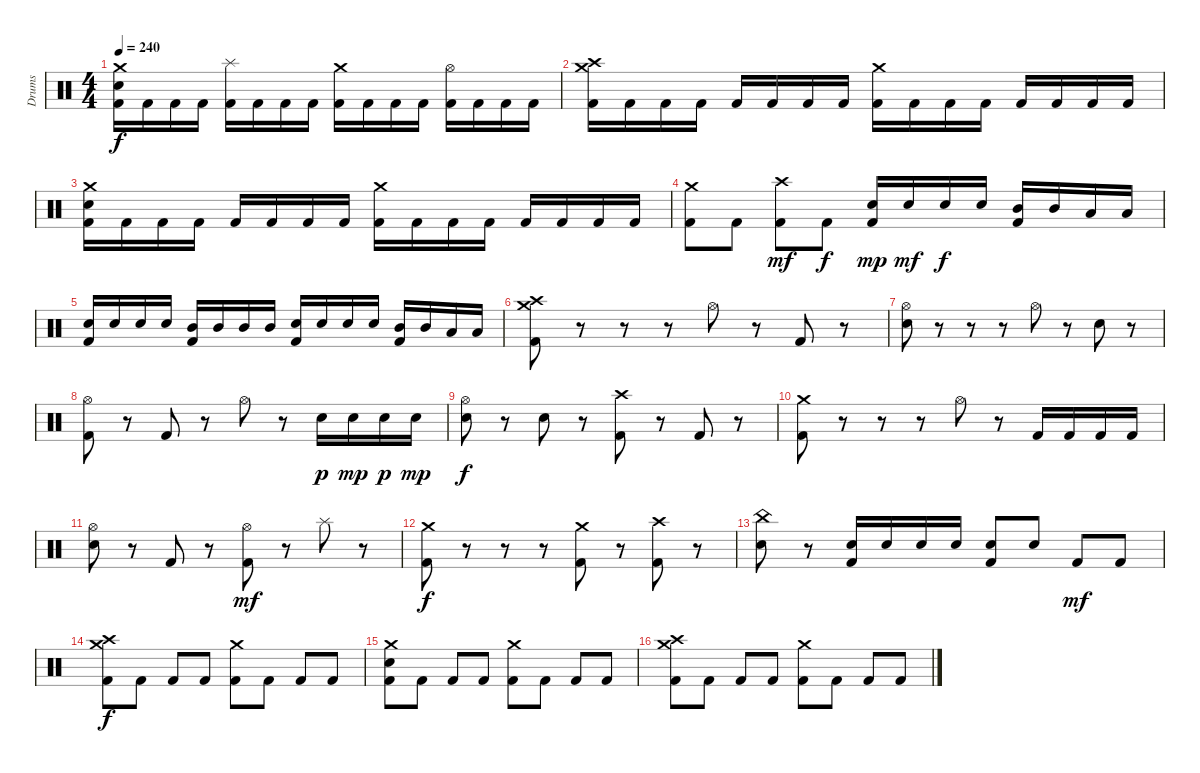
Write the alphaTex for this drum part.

\track ("Drums" "Drums") {instrument percussion}
\staff {score}
\articulation defaults
\ts (4 4)
\tempo 240
\clef neutral
\ks c
("Crash medium (hit)" "Electric Snare (hit)" "Kick (hit) 2").16{dy f} "Kick (hit) 2".16 "Kick (hit) 2".16 "Kick (hit) 2".16 ("Splash (hit)" "Kick (hit) 2").16 "Kick (hit) 2".16 "Kick (hit) 2".16 "Kick (hit) 2".16 ("Crash medium (hit)" "Kick (hit) 2").16 "Kick (hit) 2".16 "Kick (hit) 2".16 "Kick (hit) 2".16 ("Hi-Hat (open)" "Kick (hit) 2").16 "Kick (hit) 2".16 "Kick (hit) 2".16 "Kick (hit) 2".16 |
("Crash medium (hit)" "Crash high (hit)" "Kick (hit) 2").16 "Kick (hit) 2".16 "Kick (hit) 2".16 "Kick (hit) 2".16 "Kick (hit) 2".16 "Kick (hit) 2".16 "Kick (hit) 2".16 "Kick (hit) 2".16 ("Crash medium (hit)" "Kick (hit) 2").16 "Kick (hit) 2".16 "Kick (hit) 2".16 "Kick (hit) 2".16 "Kick (hit) 2".16 "Kick (hit) 2".16 "Kick (hit) 2".16 "Kick (hit) 2".16 |
("Crash medium (hit)" "Electric Snare (hit)" "Kick (hit) 2").16 "Kick (hit) 2".16 "Kick (hit) 2".16 "Kick (hit) 2".16 "Kick (hit) 2".16 "Kick (hit) 2".16 "Kick (hit) 2".16 "Kick (hit) 2".16 ("Crash medium (hit)" "Kick (hit) 2").16 "Kick (hit) 2".16 "Kick (hit) 2".16 "Kick (hit) 2".16 "Kick (hit) 2".16 "Kick (hit) 2".16 "Kick (hit) 2".16 "Kick (hit) 2".16 |
("Crash medium (hit)" "Kick (hit) 2").8 "Kick (hit) 2".8 ("Crash high (hit)" "Kick (hit) 2").8{dy mf} "Kick (hit) 2".8{dy f} ("Electric Snare (hit)" "Kick (hit) 2").16{dy mp} "Electric Snare (hit)".16{dy mf} "Electric Snare (hit)".16{dy f} "Electric Snare (hit)".16 ("Mid Tom (hit)" "Kick (hit) 2").16 "Mid Tom (hit)".16 "Low Tom (hit)".16 "Low Tom (hit)".16 |
("Electric Snare (hit)" "Kick (hit) 2").16 "Electric Snare (hit)".16 "Electric Snare (hit)".16 "Electric Snare (hit)".16 ("Mid Tom (hit)" "Kick (hit) 2").16 "Mid Tom (hit)".16 "Mid Tom (hit)".16 "Mid Tom (hit)".16 ("Electric Snare (hit)" "Kick (hit) 2").16 "Electric Snare (hit)".16 "Electric Snare (hit)".16 "Electric Snare (hit)".16 ("Mid Tom (hit)" "Kick (hit) 2").16 "Mid Tom (hit)".16 "Low Tom (hit)".16 "Low Tom (hit)".16 |
("Crash medium (hit)" "Crash high (hit)" "Kick (hit) 2").8 r.8 r.8 r.8 "Hi-Hat (open)".8 r.8 "Kick (hit) 2".8 r.8 |
("Hi-Hat (open)" "Electric Snare (hit)").8 r.8 r.8 r.8 "Hi-Hat (open)".8 r.8 "Electric Snare (hit)".8 r.8 |
("Hi-Hat (open)" "Kick (hit) 2").8 r.8 "Kick (hit) 2".8 r.8 "Hi-Hat (open)".8 r.8 "Electric Snare (hit)".16{dy p} "Electric Snare (hit)".16{dy mp} "Electric Snare (hit)".16{dy p} "Electric Snare (hit)".16{dy mp} |
("Hi-Hat (open)" "Electric Snare (hit)").8{dy f} r.8 "Electric Snare (hit)".8 r.8 ("Crash high (hit)" "Kick (hit) 2").8 r.8 "Kick (hit) 2".8 r.8 |
("Crash medium (hit)" "Kick (hit) 2").8 r.8 r.8 r.8 "Hi-Hat (open)".8 r.8 "Kick (hit) 2".16 "Kick (hit) 2".16 "Kick (hit) 2".16 "Kick (hit) 2".16 |
("Hi-Hat (open)" "Electric Snare (hit)").8 r.8 "Kick (hit) 2".8 r.8 ("Hi-Hat (open)" "Kick (hit) 2").8{dy mf} r.8 "Splash (hit)".8 r.8 |
("Crash medium (hit)" "Kick (hit) 2").8{dy f} r.8 r.8 r.8 ("Crash medium (hit)" "Kick (hit) 2").8 r.8 ("Crash high (hit)" "Kick (hit) 2").8 r.8 |
("China (hit)" "Electric Snare (hit)").8 r.8 ("Electric Snare (hit)" "Kick (hit) 2").16 "Electric Snare (hit)".16 "Electric Snare (hit)".16 "Electric Snare (hit)".16 ("Electric Snare (hit)" "Kick (hit) 2").8 "Electric Snare (hit)".8 "Kick (hit) 2".8{dy mf} "Kick (hit) 2".8 |
("Crash medium (hit)" "Crash high (hit)" "Kick (hit) 2").8{dy f} "Kick (hit) 2".8 "Kick (hit) 2".8 "Kick (hit) 2".8 ("Crash medium (hit)" "Kick (hit) 2").8 "Kick (hit) 2".8 "Kick (hit) 2".8 "Kick (hit) 2".8 |
("Crash medium (hit)" "Electric Snare (hit)" "Kick (hit) 2").8 "Kick (hit) 2".8 "Kick (hit) 2".8 "Kick (hit) 2".8 ("Crash medium (hit)" "Kick (hit) 2").8 "Kick (hit) 2".8 "Kick (hit) 2".8 "Kick (hit) 2".8 |
("Crash medium (hit)" "Crash high (hit)" "Kick (hit) 2").8 "Kick (hit) 2".8 "Kick (hit) 2".8 "Kick (hit) 2".8 ("Crash medium (hit)" "Kick (hit) 2").8 "Kick (hit) 2".8 "Kick (hit) 2".8 "Kick (hit) 2".8
